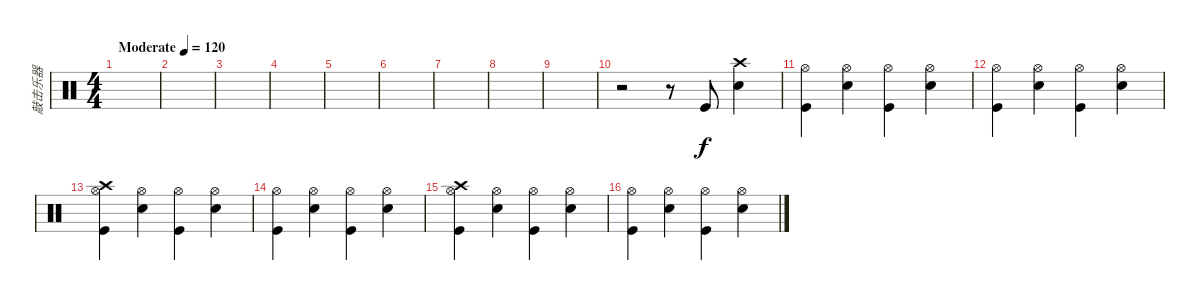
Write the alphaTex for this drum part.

\track ("敲击乐器" "敲击乐器") {instrument percussion}
\staff {score}
\articulation defaults
\ts (4 4)
\tempo (120 "Moderate")
\clef neutral
\ks c
|
|
|
|
|
|
|
|
|
r.2 r.8 "Kick (hit)".8 ("Crash high (hit)" "Snare (hit) 2").4 |
("Hi-Hat (open)" "Kick (hit)").4 ("Hi-Hat (open)" "Snare (hit) 2").4 ("Hi-Hat (open)" "Kick (hit)").4 ("Hi-Hat (open)" "Snare (hit) 2").4 |
("Hi-Hat (open)" "Kick (hit)").4 ("Hi-Hat (open)" "Snare (hit) 2").4 ("Hi-Hat (open)" "Kick (hit)").4 ("Hi-Hat (open)" "Snare (hit) 2").4 |
("Crash high (hit)" "Hi-Hat (open)" "Kick (hit)").4 ("Hi-Hat (open)" "Snare (hit) 2").4 ("Hi-Hat (open)" "Kick (hit)").4 ("Hi-Hat (open)" "Snare (hit) 2").4 |
("Hi-Hat (open)" "Kick (hit)").4 ("Hi-Hat (open)" "Snare (hit) 2").4 ("Hi-Hat (open)" "Kick (hit)").4 ("Hi-Hat (open)" "Snare (hit) 2").4 |
("Crash high (hit)" "Hi-Hat (open)" "Kick (hit)").4 ("Hi-Hat (open)" "Snare (hit) 2").4 ("Hi-Hat (open)" "Kick (hit)").4 ("Hi-Hat (open)" "Snare (hit) 2").4 |
("Hi-Hat (open)" "Kick (hit)").4 ("Hi-Hat (open)" "Snare (hit) 2").4 ("Hi-Hat (open)" "Kick (hit)").4 ("Hi-Hat (open)" "Snare (hit) 2").4
